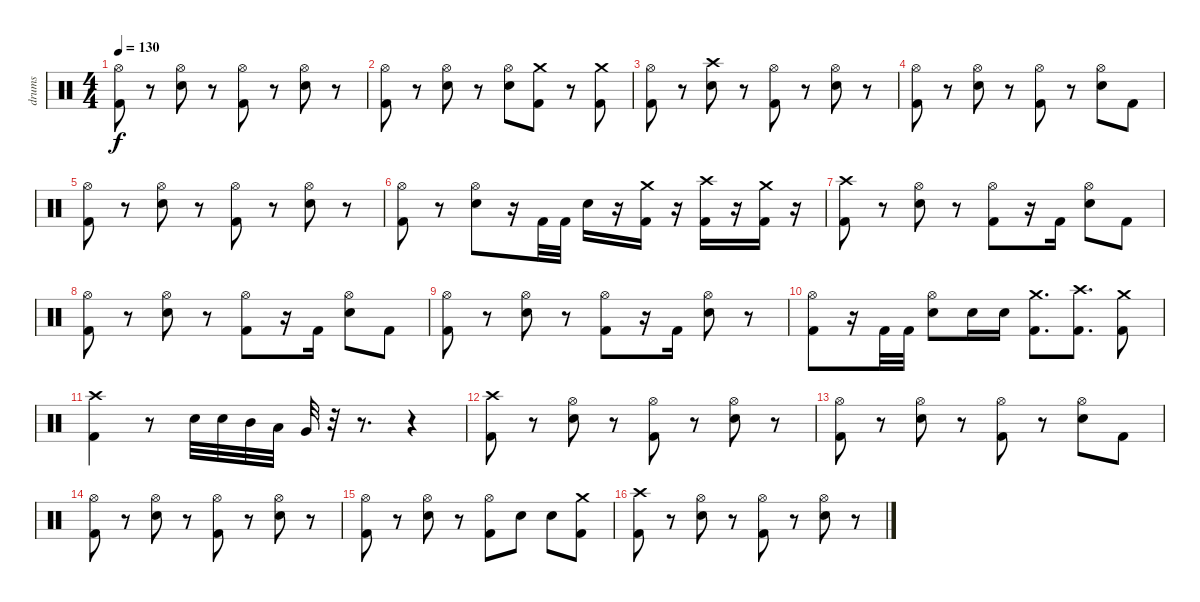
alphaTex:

\track ("drums" "drums") {instrument percussion}
\staff {score}
\articulation defaults
\ts (4 4)
\tempo 130
\clef neutral
\ks c
("Hi-Hat (open)" "Kick (hit) 2").8{dy f} r.8 ("Hi-Hat (open)" "Snare (hit) 2").8 r.8 ("Hi-Hat (open)" "Kick (hit) 2").8 r.8 ("Hi-Hat (open)" "Snare (hit) 2").8 r.8 |
("Hi-Hat (open)" "Kick (hit) 2").8 r.8 ("Hi-Hat (open)" "Snare (hit) 2").8 r.8 ("Hi-Hat (open)" "Snare (hit) 2").8 ("Crash medium (hit)" "Kick (hit) 2").8 r.8 ("Crash medium (hit)" "Kick (hit) 2").8 |
("Hi-Hat (open)" "Kick (hit) 2").8 r.8 ("Crash high (hit)" "Snare (hit) 2").8 r.8 ("Hi-Hat (open)" "Kick (hit) 2").8 r.8 ("Hi-Hat (open)" "Snare (hit) 2").8 r.8 |
("Hi-Hat (open)" "Kick (hit) 2").8 r.8 ("Hi-Hat (open)" "Snare (hit) 2").8 r.8 ("Hi-Hat (open)" "Kick (hit) 2").8 r.8 ("Hi-Hat (open)" "Snare (hit) 2").8 "Kick (hit) 2".8 |
("Hi-Hat (open)" "Kick (hit) 2").8 r.8 ("Hi-Hat (open)" "Snare (hit) 2").8 r.8 ("Hi-Hat (open)" "Kick (hit) 2").8 r.8 ("Hi-Hat (open)" "Snare (hit) 2").8 r.8 |
("Hi-Hat (open)" "Kick (hit) 2").8 r.8 ("Hi-Hat (open)" "Snare (hit) 2").8 r.16 "Kick (hit) 2".32 "Kick (hit) 2".32 "Snare (hit) 2".16 r.16 ("Crash medium (hit)" "Kick (hit) 2").16 r.16 ("Crash high (hit)" "Kick (hit) 2").16 r.16 ("Crash medium (hit)" "Kick (hit) 2").16 r.16 |
("Crash high (hit)" "Kick (hit) 2").8 r.8 ("Hi-Hat (open)" "Snare (hit) 2").8 r.8 ("Hi-Hat (open)" "Kick (hit) 2").8 r.16 "Kick (hit) 2".16 ("Hi-Hat (open)" "Snare (hit) 2").8 "Kick (hit) 2".8 |
("Hi-Hat (open)" "Kick (hit) 2").8 r.8 ("Hi-Hat (open)" "Snare (hit) 2").8 r.8 ("Hi-Hat (open)" "Kick (hit) 2").8 r.16 "Kick (hit) 2".16 ("Hi-Hat (open)" "Snare (hit) 2").8 "Kick (hit) 2".8 |
("Hi-Hat (open)" "Kick (hit) 2").8 r.8 ("Hi-Hat (open)" "Snare (hit) 2").8 r.8 ("Hi-Hat (open)" "Kick (hit) 2").8 r.16 "Kick (hit) 2".16 ("Hi-Hat (open)" "Snare (hit) 2").8 r.8 |
("Hi-Hat (open)" "Kick (hit) 2").8 r.16 "Kick (hit) 2".32 "Kick (hit) 2".32 ("Hi-Hat (open)" "Snare (hit) 2").8 "Snare (hit) 2".16 "Snare (hit) 2".16 ("Crash medium (hit)" "Kick (hit) 2").8{d} ("Crash high (hit)" "Kick (hit) 2").8{d} ("Crash medium (hit)" "Kick (hit) 2").8 |
("Crash high (hit)" "Kick (hit) 2").4 r.8 "Snare (hit) 2".32 "Snare (hit) 2".32 "Mid Tom (hit)".32 "Low Tom (hit)".32 "Very Low Tom (hit)".32 r.32 r.8{d} r.4 |
("Crash high (hit)" "Kick (hit) 2").8 r.8 ("Hi-Hat (open)" "Snare (hit) 2").8 r.8 ("Hi-Hat (open)" "Kick (hit) 2").8 r.8 ("Hi-Hat (open)" "Snare (hit) 2").8 r.8 |
("Hi-Hat (open)" "Kick (hit) 2").8 r.8 ("Hi-Hat (open)" "Snare (hit) 2").8 r.8 ("Hi-Hat (open)" "Kick (hit) 2").8 r.8 ("Hi-Hat (open)" "Snare (hit) 2").8 "Kick (hit) 2".8 |
("Hi-Hat (open)" "Kick (hit) 2").8 r.8 ("Hi-Hat (open)" "Snare (hit) 2").8 r.8 ("Hi-Hat (open)" "Kick (hit) 2").8 r.8 ("Hi-Hat (open)" "Snare (hit) 2").8 r.8 |
("Hi-Hat (open)" "Kick (hit) 2").8 r.8 ("Hi-Hat (open)" "Snare (hit) 2").8 r.8 ("Hi-Hat (open)" "Kick (hit) 2").8 "Snare (hit) 2".8 "Snare (hit) 2".8 ("Crash medium (hit)" "Kick (hit) 2").8 |
("Crash high (hit)" "Kick (hit) 2").8 r.8 ("Hi-Hat (open)" "Snare (hit) 2").8 r.8 ("Hi-Hat (open)" "Kick (hit) 2").8 r.8 ("Hi-Hat (open)" "Snare (hit) 2").8 r.8
